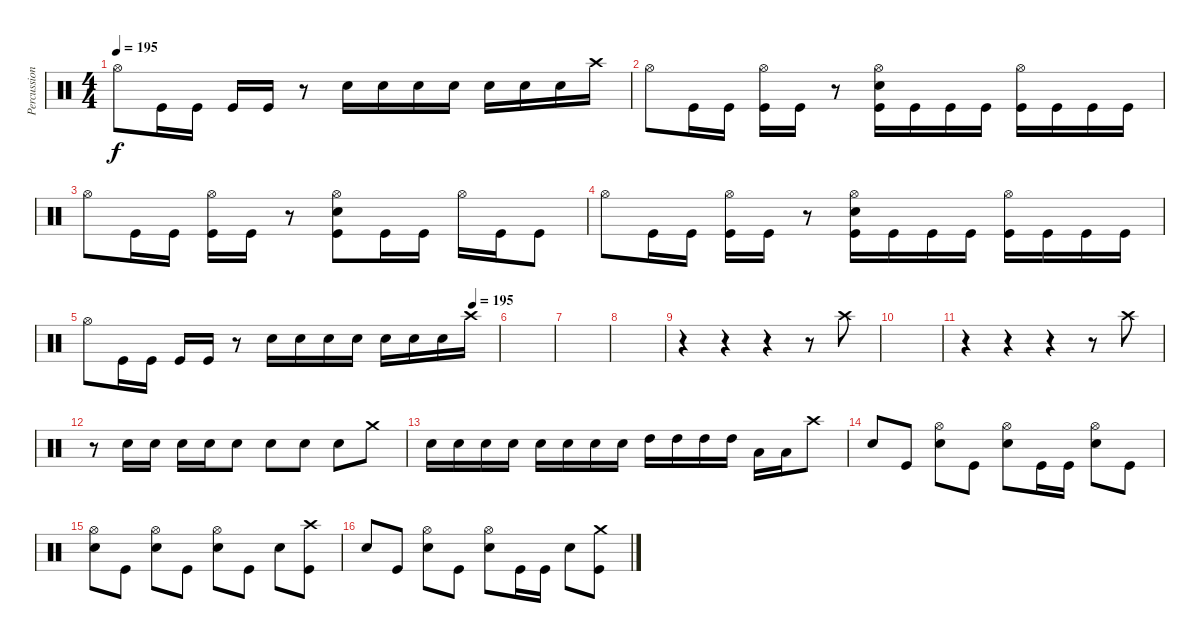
\track ("Percussion" "Percussion") {instrument percussion}
\staff {score}
\articulation defaults
\ts (4 4)
\tempo 195
\clef neutral
\ks c "Hi-Hat (open)".8{dy f} "Kick (hit)".16 "Kick (hit)".16 "Kick (hit)".16 "Kick (hit)".16
r.8 "Electric Snare (hit)".16 "Electric Snare (hit)".16 "Electric Snare (hit)".16 "Electric Snare (hit)".16 "Electric Snare (hit)".16 "Electric Snare (hit)".16 "Electric Snare (hit)".16 "Crash high (hit)".16 |
"Hi-Hat (open)".8 "Kick (hit)".16 "Kick (hit)".16 ("Hi-Hat (open)" "Kick (hit)").16 "Kick (hit)".16 r.8 ("Hi-Hat (open)" "Electric Snare (hit)" "Kick (hit)").16 "Kick (hit)".16 "Kick (hit)".16 "Kick (hit)".16 ("Hi-Hat (open)" "Kick (hit)").16 "Kick (hit)".16 "Kick (hit)".16 "Kick (hit)".16 |
"Hi-Hat (open)".8 "Kick (hit)".16 "Kick (hit)".16 ("Hi-Hat (open)" "Kick (hit)").16 "Kick (hit)".16 r.8 ("Hi-Hat (open)" "Electric Snare (hit)" "Kick (hit)").8 "Kick (hit)".16 "Kick (hit)".16 "Hi-Hat (open)".16 "Kick (hit)".16 "Kick (hit)".8 |
"Hi-Hat (open)".8 "Kick (hit)".16 "Kick (hit)".16 ("Hi-Hat (open)" "Kick (hit)").16 "Kick (hit)".16 r.8 ("Hi-Hat (open)" "Electric Snare (hit)" "Kick (hit)").16 "Kick (hit)".16 "Kick (hit)".16 "Kick (hit)".16 ("Hi-Hat (open)" "Kick (hit)").16 "Kick (hit)".16 "Kick (hit)".16 "Kick (hit)".16 |
\tempo (195 0.9375)
"Hi-Hat (open)".8 "Kick (hit)".16 "Kick (hit)".16 "Kick (hit)".16 "Kick (hit)".16 r.8 "Electric Snare (hit)".16 "Electric Snare (hit)".16 "Electric Snare (hit)".16 "Electric Snare (hit)".16 "Electric Snare (hit)".16 "Electric Snare (hit)".16 "Electric Snare (hit)".16 "Crash high (hit)".16 |
|
|
|
r.4 r.4 r.4 r.8 "Crash high (hit)".8 |
|
r.4 r.4 r.4 r.8 "Crash high (hit)".8 |
r.8 "Electric Snare (hit)".16 "Electric Snare (hit)".16 "Electric Snare (hit)".16 "Electric Snare (hit)".16 "Electric Snare (hit)".8 "Electric Snare (hit)".8 "Electric Snare (hit)".8 "Electric Snare (hit)".8 "Crash medium (hit)".8 |
"Electric Snare (hit)".16 "Electric Snare (hit)".16 "Electric Snare (hit)".16 "Electric Snare (hit)".16 "Electric Snare (hit)".16 "Electric Snare (hit)".16 "Electric Snare (hit)".16 "Electric Snare (hit)".16 "High Tom (hit)".16 "High Tom (hit)".16 "High Tom (hit)".16 "High Tom (hit)".16 "Low Floor Tom (hit)".16 "Low Floor Tom (hit)".16 "Crash high (hit)".8 |
"Electric Snare (hit)".8 "Kick (hit)".8 ("Hi-Hat (open)" "Electric Snare (hit)").8 "Kick (hit)".8 ("Hi-Hat (open)" "Electric Snare (hit)").8 "Kick (hit)".16 "Kick (hit)".16 ("Hi-Hat (open)" "Electric Snare (hit)").8 "Kick (hit)".8 |
("Hi-Hat (open)" "Electric Snare (hit)").8 "Kick (hit)".8 ("Hi-Hat (open)" "Electric Snare (hit)").8 "Kick (hit)".8 ("Hi-Hat (open)" "Electric Snare (hit)").8 "Kick (hit)".8 "Electric Snare (hit)".8 ("Crash high (hit)" "Kick (hit)").8 |
"Electric Snare (hit)".8 "Kick (hit)".8 ("Hi-Hat (open)" "Electric Snare (hit)").8 "Kick (hit)".8 ("Hi-Hat (open)" "Electric Snare (hit)").8 "Kick (hit)".16 "Kick (hit)".16 "Electric Snare (hit)".8 ("Crash medium (hit)" "Kick (hit)").8
